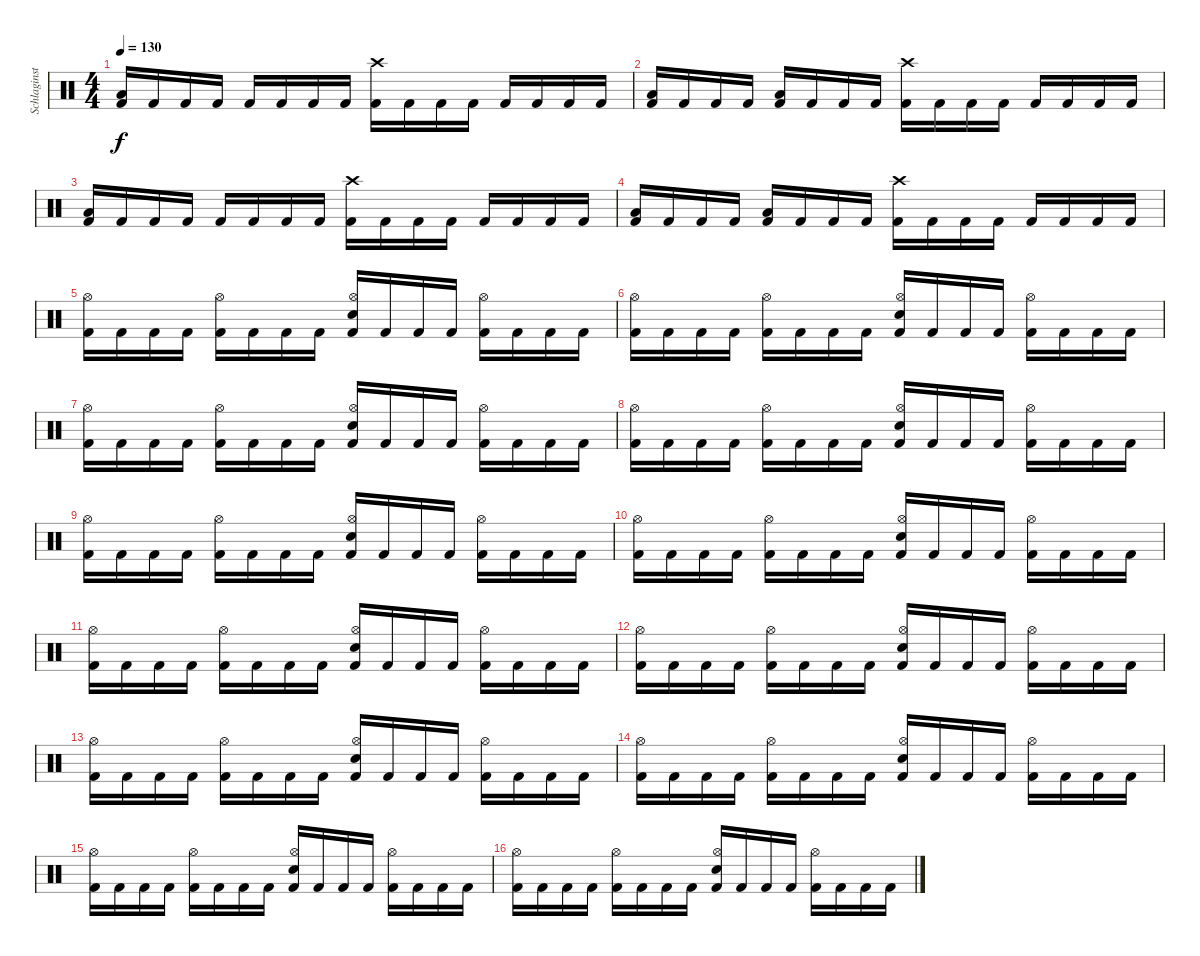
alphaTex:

\track ("Schlaginstrumente - Auswahl" "Schlaginst") {instrument percussion}
\staff {score}
\articulation defaults
\ts (4 4)
\tempo 130
\clef neutral
\ks c
("Low Tom (hit)" "Kick (hit) 2").16{dy f} "Kick (hit) 2".16 "Kick (hit) 2".16 "Kick (hit) 2".16 "Kick (hit) 2".16 "Kick (hit) 2".16 "Kick (hit) 2".16 "Kick (hit) 2".16 ("Crash high (hit)" "Kick (hit) 2").16 "Kick (hit) 2".16 "Kick (hit) 2".16 "Kick (hit) 2".16 "Kick (hit) 2".16 "Kick (hit) 2".16 "Kick (hit) 2".16 "Kick (hit) 2".16 |
("Low Tom (hit)" "Kick (hit) 2").16 "Kick (hit) 2".16 "Kick (hit) 2".16 "Kick (hit) 2".16 ("Low Floor Tom (hit)" "Kick (hit) 2").16 "Kick (hit) 2".16 "Kick (hit) 2".16 "Kick (hit) 2".16 ("Crash high (hit)" "Kick (hit) 2").16 "Kick (hit) 2".16 "Kick (hit) 2".16 "Kick (hit) 2".16 "Kick (hit) 2".16 "Kick (hit) 2".16 "Kick (hit) 2".16 "Kick (hit) 2".16 |
("Low Tom (hit)" "Kick (hit) 2").16 "Kick (hit) 2".16 "Kick (hit) 2".16 "Kick (hit) 2".16 "Kick (hit) 2".16 "Kick (hit) 2".16 "Kick (hit) 2".16 "Kick (hit) 2".16 ("Crash high (hit)" "Kick (hit) 2").16 "Kick (hit) 2".16 "Kick (hit) 2".16 "Kick (hit) 2".16 "Kick (hit) 2".16 "Kick (hit) 2".16 "Kick (hit) 2".16 "Kick (hit) 2".16 |
("Low Tom (hit)" "Kick (hit) 2").16 "Kick (hit) 2".16 "Kick (hit) 2".16 "Kick (hit) 2".16 ("Low Floor Tom (hit)" "Kick (hit) 2").16 "Kick (hit) 2".16 "Kick (hit) 2".16 "Kick (hit) 2".16 ("Crash high (hit)" "Kick (hit) 2").16 "Kick (hit) 2".16 "Kick (hit) 2".16 "Kick (hit) 2".16 "Kick (hit) 2".16 "Kick (hit) 2".16 "Kick (hit) 2".16 "Kick (hit) 2".16 |
("Hi-Hat (open)" "Kick (hit) 2").16 "Kick (hit) 2".16 "Kick (hit) 2".16 "Kick (hit) 2".16 ("Hi-Hat (open)" "Kick (hit) 2").16 "Kick (hit) 2".16 "Kick (hit) 2".16 "Kick (hit) 2".16 ("Hi-Hat (open)" "Snare (hit) 2" "Kick (hit) 2").16 "Kick (hit) 2".16 "Kick (hit) 2".16 "Kick (hit) 2".16 ("Hi-Hat (open)" "Kick (hit) 2").16 "Kick (hit) 2".16 "Kick (hit) 2".16 "Kick (hit) 2".16 |
("Hi-Hat (open)" "Kick (hit) 2").16 "Kick (hit) 2".16 "Kick (hit) 2".16 "Kick (hit) 2".16 ("Hi-Hat (open)" "Kick (hit) 2").16 "Kick (hit) 2".16 "Kick (hit) 2".16 "Kick (hit) 2".16 ("Hi-Hat (open)" "Snare (hit) 2" "Kick (hit) 2").16 "Kick (hit) 2".16 "Kick (hit) 2".16 "Kick (hit) 2".16 ("Hi-Hat (open)" "Kick (hit) 2").16 "Kick (hit) 2".16 "Kick (hit) 2".16 "Kick (hit) 2".16 |
("Hi-Hat (open)" "Kick (hit) 2").16 "Kick (hit) 2".16 "Kick (hit) 2".16 "Kick (hit) 2".16 ("Hi-Hat (open)" "Kick (hit) 2").16 "Kick (hit) 2".16 "Kick (hit) 2".16 "Kick (hit) 2".16 ("Hi-Hat (open)" "Snare (hit) 2" "Kick (hit) 2").16 "Kick (hit) 2".16 "Kick (hit) 2".16 "Kick (hit) 2".16 ("Hi-Hat (open)" "Kick (hit) 2").16 "Kick (hit) 2".16 "Kick (hit) 2".16 "Kick (hit) 2".16 |
("Hi-Hat (open)" "Kick (hit) 2").16 "Kick (hit) 2".16 "Kick (hit) 2".16 "Kick (hit) 2".16 ("Hi-Hat (open)" "Kick (hit) 2").16 "Kick (hit) 2".16 "Kick (hit) 2".16 "Kick (hit) 2".16 ("Hi-Hat (open)" "Snare (hit) 2" "Kick (hit) 2").16 "Kick (hit) 2".16 "Kick (hit) 2".16 "Kick (hit) 2".16 ("Hi-Hat (open)" "Kick (hit) 2").16 "Kick (hit) 2".16 "Kick (hit) 2".16 "Kick (hit) 2".16 |
("Hi-Hat (open)" "Kick (hit) 2").16 "Kick (hit) 2".16 "Kick (hit) 2".16 "Kick (hit) 2".16 ("Hi-Hat (open)" "Kick (hit) 2").16 "Kick (hit) 2".16 "Kick (hit) 2".16 "Kick (hit) 2".16 ("Hi-Hat (open)" "Snare (hit) 2" "Kick (hit) 2").16 "Kick (hit) 2".16 "Kick (hit) 2".16 "Kick (hit) 2".16 ("Hi-Hat (open)" "Kick (hit) 2").16 "Kick (hit) 2".16 "Kick (hit) 2".16 "Kick (hit) 2".16 |
("Hi-Hat (open)" "Kick (hit) 2").16 "Kick (hit) 2".16 "Kick (hit) 2".16 "Kick (hit) 2".16 ("Hi-Hat (open)" "Kick (hit) 2").16 "Kick (hit) 2".16 "Kick (hit) 2".16 "Kick (hit) 2".16 ("Hi-Hat (open)" "Snare (hit) 2" "Kick (hit) 2").16 "Kick (hit) 2".16 "Kick (hit) 2".16 "Kick (hit) 2".16 ("Hi-Hat (open)" "Kick (hit) 2").16 "Kick (hit) 2".16 "Kick (hit) 2".16 "Kick (hit) 2".16 |
("Hi-Hat (open)" "Kick (hit) 2").16 "Kick (hit) 2".16 "Kick (hit) 2".16 "Kick (hit) 2".16 ("Hi-Hat (open)" "Kick (hit) 2").16 "Kick (hit) 2".16 "Kick (hit) 2".16 "Kick (hit) 2".16 ("Hi-Hat (open)" "Snare (hit) 2" "Kick (hit) 2").16 "Kick (hit) 2".16 "Kick (hit) 2".16 "Kick (hit) 2".16 ("Hi-Hat (open)" "Kick (hit) 2").16 "Kick (hit) 2".16 "Kick (hit) 2".16 "Kick (hit) 2".16 |
("Hi-Hat (open)" "Kick (hit) 2").16 "Kick (hit) 2".16 "Kick (hit) 2".16 "Kick (hit) 2".16 ("Hi-Hat (open)" "Kick (hit) 2").16 "Kick (hit) 2".16 "Kick (hit) 2".16 "Kick (hit) 2".16 ("Hi-Hat (open)" "Snare (hit) 2" "Kick (hit) 2").16 "Kick (hit) 2".16 "Kick (hit) 2".16 "Kick (hit) 2".16 ("Hi-Hat (open)" "Kick (hit) 2").16 "Kick (hit) 2".16 "Kick (hit) 2".16 "Kick (hit) 2".16 |
("Hi-Hat (open)" "Kick (hit) 2").16 "Kick (hit) 2".16 "Kick (hit) 2".16 "Kick (hit) 2".16 ("Hi-Hat (open)" "Kick (hit) 2").16 "Kick (hit) 2".16 "Kick (hit) 2".16 "Kick (hit) 2".16 ("Hi-Hat (open)" "Snare (hit) 2" "Kick (hit) 2").16 "Kick (hit) 2".16 "Kick (hit) 2".16 "Kick (hit) 2".16 ("Hi-Hat (open)" "Kick (hit) 2").16 "Kick (hit) 2".16 "Kick (hit) 2".16 "Kick (hit) 2".16 |
("Hi-Hat (open)" "Kick (hit) 2").16 "Kick (hit) 2".16 "Kick (hit) 2".16 "Kick (hit) 2".16 ("Hi-Hat (open)" "Kick (hit) 2").16 "Kick (hit) 2".16 "Kick (hit) 2".16 "Kick (hit) 2".16 ("Hi-Hat (open)" "Snare (hit) 2" "Kick (hit) 2").16 "Kick (hit) 2".16 "Kick (hit) 2".16 "Kick (hit) 2".16 ("Hi-Hat (open)" "Kick (hit) 2").16 "Kick (hit) 2".16 "Kick (hit) 2".16 "Kick (hit) 2".16 |
("Hi-Hat (open)" "Kick (hit) 2").16 "Kick (hit) 2".16 "Kick (hit) 2".16 "Kick (hit) 2".16 ("Hi-Hat (open)" "Kick (hit) 2").16 "Kick (hit) 2".16 "Kick (hit) 2".16 "Kick (hit) 2".16 ("Hi-Hat (open)" "Snare (hit) 2" "Kick (hit) 2").16 "Kick (hit) 2".16 "Kick (hit) 2".16 "Kick (hit) 2".16 ("Hi-Hat (open)" "Kick (hit) 2").16 "Kick (hit) 2".16 "Kick (hit) 2".16 "Kick (hit) 2".16 |
("Hi-Hat (open)" "Kick (hit) 2").16 "Kick (hit) 2".16 "Kick (hit) 2".16 "Kick (hit) 2".16 ("Hi-Hat (open)" "Kick (hit) 2").16 "Kick (hit) 2".16 "Kick (hit) 2".16 "Kick (hit) 2".16 ("Hi-Hat (open)" "Snare (hit) 2" "Kick (hit) 2").16 "Kick (hit) 2".16 "Kick (hit) 2".16 "Kick (hit) 2".16 ("Hi-Hat (open)" "Kick (hit) 2").16 "Kick (hit) 2".16 "Kick (hit) 2".16 "Kick (hit) 2".16
